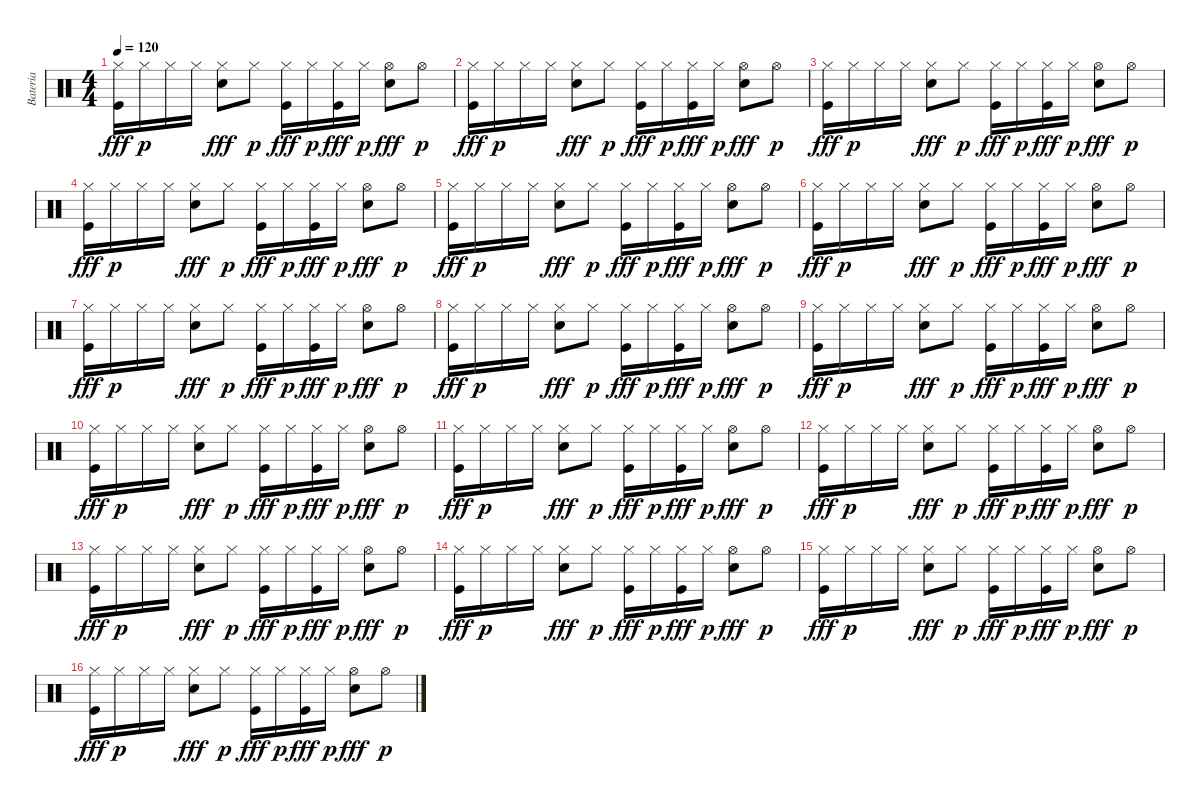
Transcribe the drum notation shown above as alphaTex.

\track ("Bateria" "Bateria") {instrument percussion}
\staff {score}
\articulation defaults
\ts (4 4)
\tempo 120
\clef neutral
\ks c
("Hi-Hat (closed)" "Kick (hit)").16{dy fff} "Hi-Hat (closed)".16{dy p} "Hi-Hat (closed)".16 "Hi-Hat (closed)".16 ("Hi-Hat (closed)" "Snare (hit) 2").8{dy fff} "Hi-Hat (closed)".8{dy p} ("Hi-Hat (closed)" "Kick (hit)").16{dy fff} "Hi-Hat (closed)".16{dy p} ("Hi-Hat (closed)" "Kick (hit)").16{dy fff} "Hi-Hat (closed)".16{dy p} ("Hi-Hat (open)" "Snare (hit) 2").8{dy fff} "Hi-Hat (open)".8{dy p} |
("Hi-Hat (closed)" "Kick (hit)").16{dy fff} "Hi-Hat (closed)".16{dy p} "Hi-Hat (closed)".16 "Hi-Hat (closed)".16 ("Hi-Hat (closed)" "Snare (hit) 2").8{dy fff} "Hi-Hat (closed)".8{dy p} ("Hi-Hat (closed)" "Kick (hit)").16{dy fff} "Hi-Hat (closed)".16{dy p} ("Hi-Hat (closed)" "Kick (hit)").16{dy fff} "Hi-Hat (closed)".16{dy p} ("Hi-Hat (open)" "Snare (hit) 2").8{dy fff} "Hi-Hat (open)".8{dy p} |
("Hi-Hat (closed)" "Kick (hit)").16{dy fff} "Hi-Hat (closed)".16{dy p} "Hi-Hat (closed)".16 "Hi-Hat (closed)".16 ("Hi-Hat (closed)" "Snare (hit) 2").8{dy fff} "Hi-Hat (closed)".8{dy p} ("Hi-Hat (closed)" "Kick (hit)").16{dy fff} "Hi-Hat (closed)".16{dy p} ("Hi-Hat (closed)" "Kick (hit)").16{dy fff} "Hi-Hat (closed)".16{dy p} ("Hi-Hat (open)" "Snare (hit) 2").8{dy fff} "Hi-Hat (open)".8{dy p} |
("Hi-Hat (closed)" "Kick (hit)").16{dy fff} "Hi-Hat (closed)".16{dy p} "Hi-Hat (closed)".16 "Hi-Hat (closed)".16 ("Hi-Hat (closed)" "Snare (hit) 2").8{dy fff} "Hi-Hat (closed)".8{dy p} ("Hi-Hat (closed)" "Kick (hit)").16{dy fff} "Hi-Hat (closed)".16{dy p} ("Hi-Hat (closed)" "Kick (hit)").16{dy fff} "Hi-Hat (closed)".16{dy p} ("Hi-Hat (open)" "Snare (hit) 2").8{dy fff} "Hi-Hat (open)".8{dy p} |
("Hi-Hat (closed)" "Kick (hit)").16{dy fff} "Hi-Hat (closed)".16{dy p} "Hi-Hat (closed)".16 "Hi-Hat (closed)".16 ("Hi-Hat (closed)" "Snare (hit) 2").8{dy fff} "Hi-Hat (closed)".8{dy p} ("Hi-Hat (closed)" "Kick (hit)").16{dy fff} "Hi-Hat (closed)".16{dy p} ("Hi-Hat (closed)" "Kick (hit)").16{dy fff} "Hi-Hat (closed)".16{dy p} ("Hi-Hat (open)" "Snare (hit) 2").8{dy fff} "Hi-Hat (open)".8{dy p} |
("Hi-Hat (closed)" "Kick (hit)").16{dy fff} "Hi-Hat (closed)".16{dy p} "Hi-Hat (closed)".16 "Hi-Hat (closed)".16 ("Hi-Hat (closed)" "Snare (hit) 2").8{dy fff} "Hi-Hat (closed)".8{dy p} ("Hi-Hat (closed)" "Kick (hit)").16{dy fff} "Hi-Hat (closed)".16{dy p} ("Hi-Hat (closed)" "Kick (hit)").16{dy fff} "Hi-Hat (closed)".16{dy p} ("Hi-Hat (open)" "Snare (hit) 2").8{dy fff} "Hi-Hat (open)".8{dy p} |
("Hi-Hat (closed)" "Kick (hit)").16{dy fff} "Hi-Hat (closed)".16{dy p} "Hi-Hat (closed)".16 "Hi-Hat (closed)".16 ("Hi-Hat (closed)" "Snare (hit) 2").8{dy fff} "Hi-Hat (closed)".8{dy p} ("Hi-Hat (closed)" "Kick (hit)").16{dy fff} "Hi-Hat (closed)".16{dy p} ("Hi-Hat (closed)" "Kick (hit)").16{dy fff} "Hi-Hat (closed)".16{dy p} ("Hi-Hat (open)" "Snare (hit) 2").8{dy fff} "Hi-Hat (open)".8{dy p} |
("Hi-Hat (closed)" "Kick (hit)").16{dy fff} "Hi-Hat (closed)".16{dy p} "Hi-Hat (closed)".16 "Hi-Hat (closed)".16 ("Hi-Hat (closed)" "Snare (hit) 2").8{dy fff} "Hi-Hat (closed)".8{dy p} ("Hi-Hat (closed)" "Kick (hit)").16{dy fff} "Hi-Hat (closed)".16{dy p} ("Hi-Hat (closed)" "Kick (hit)").16{dy fff} "Hi-Hat (closed)".16{dy p} ("Hi-Hat (open)" "Snare (hit) 2").8{dy fff} "Hi-Hat (open)".8{dy p} |
("Hi-Hat (closed)" "Kick (hit)").16{dy fff} "Hi-Hat (closed)".16{dy p} "Hi-Hat (closed)".16 "Hi-Hat (closed)".16 ("Hi-Hat (closed)" "Snare (hit) 2").8{dy fff} "Hi-Hat (closed)".8{dy p} ("Hi-Hat (closed)" "Kick (hit)").16{dy fff} "Hi-Hat (closed)".16{dy p} ("Hi-Hat (closed)" "Kick (hit)").16{dy fff} "Hi-Hat (closed)".16{dy p} ("Hi-Hat (open)" "Snare (hit) 2").8{dy fff} "Hi-Hat (open)".8{dy p} |
("Hi-Hat (closed)" "Kick (hit)").16{dy fff} "Hi-Hat (closed)".16{dy p} "Hi-Hat (closed)".16 "Hi-Hat (closed)".16 ("Hi-Hat (closed)" "Snare (hit) 2").8{dy fff} "Hi-Hat (closed)".8{dy p} ("Hi-Hat (closed)" "Kick (hit)").16{dy fff} "Hi-Hat (closed)".16{dy p} ("Hi-Hat (closed)" "Kick (hit)").16{dy fff} "Hi-Hat (closed)".16{dy p} ("Hi-Hat (open)" "Snare (hit) 2").8{dy fff} "Hi-Hat (open)".8{dy p} |
("Hi-Hat (closed)" "Kick (hit)").16{dy fff} "Hi-Hat (closed)".16{dy p} "Hi-Hat (closed)".16 "Hi-Hat (closed)".16 ("Hi-Hat (closed)" "Snare (hit) 2").8{dy fff} "Hi-Hat (closed)".8{dy p} ("Hi-Hat (closed)" "Kick (hit)").16{dy fff} "Hi-Hat (closed)".16{dy p} ("Hi-Hat (closed)" "Kick (hit)").16{dy fff} "Hi-Hat (closed)".16{dy p} ("Hi-Hat (open)" "Snare (hit) 2").8{dy fff} "Hi-Hat (open)".8{dy p} |
("Hi-Hat (closed)" "Kick (hit)").16{dy fff} "Hi-Hat (closed)".16{dy p} "Hi-Hat (closed)".16 "Hi-Hat (closed)".16 ("Hi-Hat (closed)" "Snare (hit) 2").8{dy fff} "Hi-Hat (closed)".8{dy p} ("Hi-Hat (closed)" "Kick (hit)").16{dy fff} "Hi-Hat (closed)".16{dy p} ("Hi-Hat (closed)" "Kick (hit)").16{dy fff} "Hi-Hat (closed)".16{dy p} ("Hi-Hat (open)" "Snare (hit) 2").8{dy fff} "Hi-Hat (open)".8{dy p} |
("Hi-Hat (closed)" "Kick (hit)").16{dy fff} "Hi-Hat (closed)".16{dy p} "Hi-Hat (closed)".16 "Hi-Hat (closed)".16 ("Hi-Hat (closed)" "Snare (hit) 2").8{dy fff} "Hi-Hat (closed)".8{dy p} ("Hi-Hat (closed)" "Kick (hit)").16{dy fff} "Hi-Hat (closed)".16{dy p} ("Hi-Hat (closed)" "Kick (hit)").16{dy fff} "Hi-Hat (closed)".16{dy p} ("Hi-Hat (open)" "Snare (hit) 2").8{dy fff} "Hi-Hat (open)".8{dy p} |
("Hi-Hat (closed)" "Kick (hit)").16{dy fff} "Hi-Hat (closed)".16{dy p} "Hi-Hat (closed)".16 "Hi-Hat (closed)".16 ("Hi-Hat (closed)" "Snare (hit) 2").8{dy fff} "Hi-Hat (closed)".8{dy p} ("Hi-Hat (closed)" "Kick (hit)").16{dy fff} "Hi-Hat (closed)".16{dy p} ("Hi-Hat (closed)" "Kick (hit)").16{dy fff} "Hi-Hat (closed)".16{dy p} ("Hi-Hat (open)" "Snare (hit) 2").8{dy fff} "Hi-Hat (open)".8{dy p} |
("Hi-Hat (closed)" "Kick (hit)").16{dy fff} "Hi-Hat (closed)".16{dy p} "Hi-Hat (closed)".16 "Hi-Hat (closed)".16 ("Hi-Hat (closed)" "Snare (hit) 2").8{dy fff} "Hi-Hat (closed)".8{dy p} ("Hi-Hat (closed)" "Kick (hit)").16{dy fff} "Hi-Hat (closed)".16{dy p} ("Hi-Hat (closed)" "Kick (hit)").16{dy fff} "Hi-Hat (closed)".16{dy p} ("Hi-Hat (open)" "Snare (hit) 2").8{dy fff} "Hi-Hat (open)".8{dy p} |
("Hi-Hat (closed)" "Kick (hit)").16{dy fff} "Hi-Hat (closed)".16{dy p} "Hi-Hat (closed)".16 "Hi-Hat (closed)".16 ("Hi-Hat (closed)" "Snare (hit) 2").8{dy fff} "Hi-Hat (closed)".8{dy p} ("Hi-Hat (closed)" "Kick (hit)").16{dy fff} "Hi-Hat (closed)".16{dy p} ("Hi-Hat (closed)" "Kick (hit)").16{dy fff} "Hi-Hat (closed)".16{dy p} ("Hi-Hat (open)" "Snare (hit) 2").8{dy fff} "Hi-Hat (open)".8{dy p}
